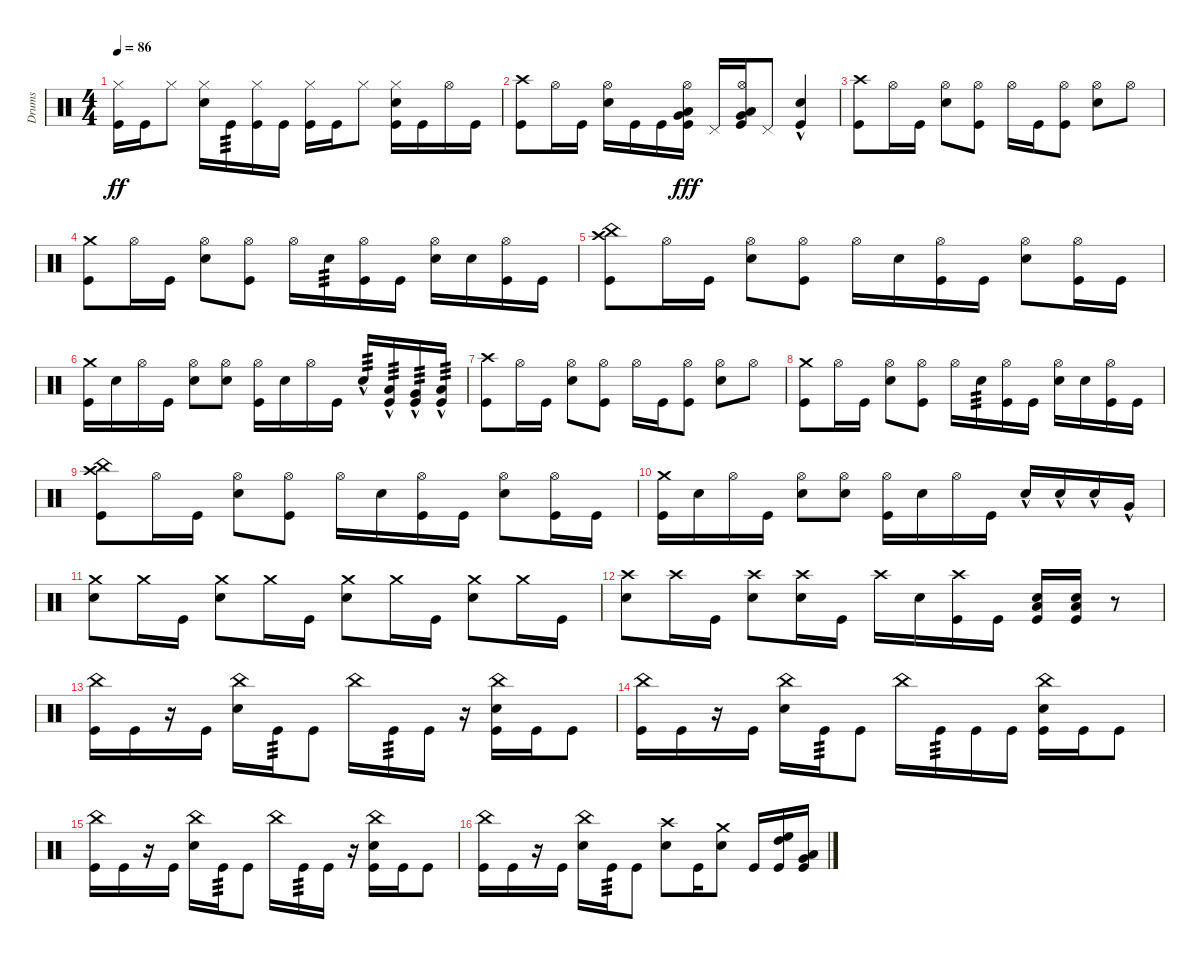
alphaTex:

\track ("Drums" "Drums") {instrument percussion}
\staff {score}
\articulation defaults
\ts (4 4)
\tempo 86
\clef neutral
\ks c
("Hi-Hat (closed)" "Kick (hit)").16{dy ff} "Kick (hit)".16 "Hi-Hat (closed)".8 ("Hi-Hat (closed)" "Snare (hit) 2").16 "Kick (hit)".16{tp 3} ("Hi-Hat (closed)" "Kick (hit)").16 "Kick (hit)".16 ("Hi-Hat (closed)" "Kick (hit)").16 "Kick (hit)".16 "Hi-Hat (closed)".8 ("Hi-Hat (closed)" "Snare (hit) 2" "Kick (hit)").16 "Kick (hit)".16 "Hi-Hat (open)".16 "Kick (hit)".16 |
("Crash high (hit)" "Kick (hit)").8 "Hi-Hat (open)".16 "Kick (hit)".16 ("Hi-Hat (open)" "Snare (hit) 2").16 "Kick (hit)".16 "Kick (hit)".16 ("Hi-Hat (open)" "Very Low Tom (hit)" "Low Floor Tom (hit)" "Kick (hit)").16{dy fff} "Pedal Hi-Hat (hit)".16 ("Hi-Hat (open)" "Very Low Tom (hit)" "Low Floor Tom (hit)" "Kick (hit)").16 "Pedal Hi-Hat (hit)".8 ("Snare (hit) 2" "Kick (hit)"{hac}).4 |
("Crash high (hit)" "Kick (hit)").8 "Hi-Hat (open)".16 "Kick (hit)".16 ("Hi-Hat (open)" "Snare (hit) 2").8 ("Hi-Hat (open)" "Kick (hit)").8 "Hi-Hat (open)".16 "Kick (hit)".16 ("Hi-Hat (open)" "Kick (hit)").8 ("Hi-Hat (open)" "Snare (hit) 2").8 "Hi-Hat (open)".8 |
("Crash medium (hit)" "Kick (hit)").8 "Hi-Hat (open)".16 "Kick (hit)".16 ("Hi-Hat (open)" "Snare (hit) 2").8 ("Hi-Hat (open)" "Kick (hit)").8 "Hi-Hat (open)".16 "Snare (hit) 2".16{tp 3} ("Hi-Hat (open)" "Kick (hit)").16 "Kick (hit)".16 ("Hi-Hat (open)" "Snare (hit) 2").16 "Snare (hit) 2".16 ("Hi-Hat (open)" "Kick (hit)").16 "Kick (hit)".16 |
("Crash high (hit)" "China (hit)" "Kick (hit)").8 "Hi-Hat (open)".16 "Kick (hit)".16 ("Hi-Hat (open)" "Snare (hit) 2").8 ("Hi-Hat (open)" "Kick (hit)").8 "Hi-Hat (open)".16 "Snare (hit) 2".16 ("Hi-Hat (open)" "Kick (hit)").16 "Kick (hit)".16 ("Hi-Hat (open)" "Snare (hit) 2").8 ("Hi-Hat (open)" "Kick (hit)").16 "Kick (hit)".16 |
("Crash medium (hit)" "Kick (hit)").16 "Snare (hit) 2".16 "Hi-Hat (open)".16 "Kick (hit)".16 ("Hi-Hat (open)" "Snare (hit) 2").8 ("Hi-Hat (open)" "Snare (hit) 2").8 ("Hi-Hat (open)" "Kick (hit)").16 "Snare (hit) 2".16 "Hi-Hat (open)".16 "Kick (hit)".16 "Snare (hit) 2"{hac}.16{tp 3} ("Low Tom (hit)"{hac} "Kick (hit)").16{tp 3} ("Very Low Tom (hit)"{hac} "Kick (hit)").16{tp 3} ("Low Tom (hit)"{hac} "Kick (hit)").16{tp 3} |
("Crash high (hit)" "Kick (hit)").8 "Hi-Hat (open)".16 "Kick (hit)".16 ("Hi-Hat (open)" "Snare (hit) 2").8 ("Hi-Hat (open)" "Kick (hit)").8 "Hi-Hat (open)".16 "Kick (hit)".16 ("Hi-Hat (open)" "Kick (hit)").8 ("Hi-Hat (open)" "Snare (hit) 2").8 "Hi-Hat (open)".8 |
("Crash medium (hit)" "Kick (hit)").8 "Hi-Hat (open)".16 "Kick (hit)".16 ("Hi-Hat (open)" "Snare (hit) 2").8 ("Hi-Hat (open)" "Kick (hit)").8 "Hi-Hat (open)".16 "Snare (hit) 2".16{tp 3} ("Hi-Hat (open)" "Kick (hit)").16 "Kick (hit)".16 ("Hi-Hat (open)" "Snare (hit) 2").16 "Snare (hit) 2".16 ("Hi-Hat (open)" "Kick (hit)").16 "Kick (hit)".16 |
("Crash high (hit)" "China (hit)" "Kick (hit)").8 "Hi-Hat (open)".16 "Kick (hit)".16 ("Hi-Hat (open)" "Snare (hit) 2").8 ("Hi-Hat (open)" "Kick (hit)").8 "Hi-Hat (open)".16 "Snare (hit) 2".16 ("Hi-Hat (open)" "Kick (hit)").16 "Kick (hit)".16 ("Hi-Hat (open)" "Snare (hit) 2").8 ("Hi-Hat (open)" "Kick (hit)").16 "Kick (hit)".16 |
("Crash medium (hit)" "Kick (hit)").16 "Snare (hit) 2".16 "Hi-Hat (open)".16 "Kick (hit)".16 ("Hi-Hat (open)" "Snare (hit) 2").8 ("Hi-Hat (open)" "Snare (hit) 2").8 ("Hi-Hat (open)" "Kick (hit)").16 "Snare (hit) 2".16 "Hi-Hat (open)".16 "Kick (hit)".16 "Snare (hit) 2"{hac}.16 "Snare (hit) 2"{hac}.16 "Snare (hit) 2"{hac}.16 "Very Low Tom (hit)"{hac}.16 |
("Crash medium (hit)" "Snare (hit) 2").8 "Crash medium (hit)".16 "Kick (hit)".16 ("Crash medium (hit)" "Snare (hit) 2").8 "Crash medium (hit)".16 "Kick (hit)".16 ("Crash medium (hit)" "Snare (hit) 2").8 "Crash medium (hit)".16 "Kick (hit)".16 ("Crash medium (hit)" "Snare (hit) 2").8 "Crash medium (hit)".16 "Kick (hit)".16 |
("Crash high (hit)" "Snare (hit) 2").8 "Crash high (hit)".16 "Kick (hit)".16 ("Crash high (hit)" "Snare (hit) 2").8 ("Crash high (hit)" "Snare (hit) 2").16 "Kick (hit)".16 "Crash high (hit)".16 "Snare (hit) 2".16 ("Crash high (hit)" "Kick (hit)").16 "Kick (hit)".16 ("Snare (hit) 2" "Low Floor Tom (hit)" "Kick (hit)").16 ("Snare (hit) 2" "Low Floor Tom (hit)" "Kick (hit)").16 r.8 |
("China (hit)" "Kick (hit)").16 "Kick (hit)".16 r.16 "Kick (hit)".16 ("China (hit)" "Snare (hit) 2").16 "Kick (hit)".16{tp 3} "Kick (hit)".8 "China (hit)".16 "Kick (hit)".16{tp 3} "Kick (hit)".16 r.16 ("China (hit)" "Snare (hit) 2" "Kick (hit)").16 "Kick (hit)".16 "Kick (hit)".8 |
("China (hit)" "Kick (hit)").16 "Kick (hit)".16 r.16 "Kick (hit)".16 ("China (hit)" "Snare (hit) 2").16 "Kick (hit)".16{tp 3} "Kick (hit)".8 "China (hit)".16 "Kick (hit)".16{tp 3} "Kick (hit)".16 "Kick (hit)".16 ("China (hit)" "Snare (hit) 2" "Kick (hit)").16 "Kick (hit)".16 "Kick (hit)".8 |
("China (hit)" "Kick (hit)").16 "Kick (hit)".16 r.16 "Kick (hit)".16 ("China (hit)" "Snare (hit) 2").16 "Kick (hit)".16{tp 3} "Kick (hit)".8 "China (hit)".16 "Kick (hit)".16{tp 3} "Kick (hit)".16 r.16 ("China (hit)" "Snare (hit) 2" "Kick (hit)").16 "Kick (hit)".16 "Kick (hit)".8 |
("China (hit)" "Kick (hit)").16 "Kick (hit)".16 r.16 "Kick (hit)".16 ("China (hit)" "Snare (hit) 2").16 "Kick (hit)".16{tp 3} "Kick (hit)".8 ("Crash high (hit)" "Snare (hit) 2").8 "Kick (hit)".16 ("Crash medium (hit)" "Snare (hit) 2").8 "Kick (hit)".16 ("High Floor Tom (hit)" "High Tom (hit)" "Kick (hit)").16 ("Low Tom (hit)" "Very Low Tom (hit)" "Kick (hit)").16
